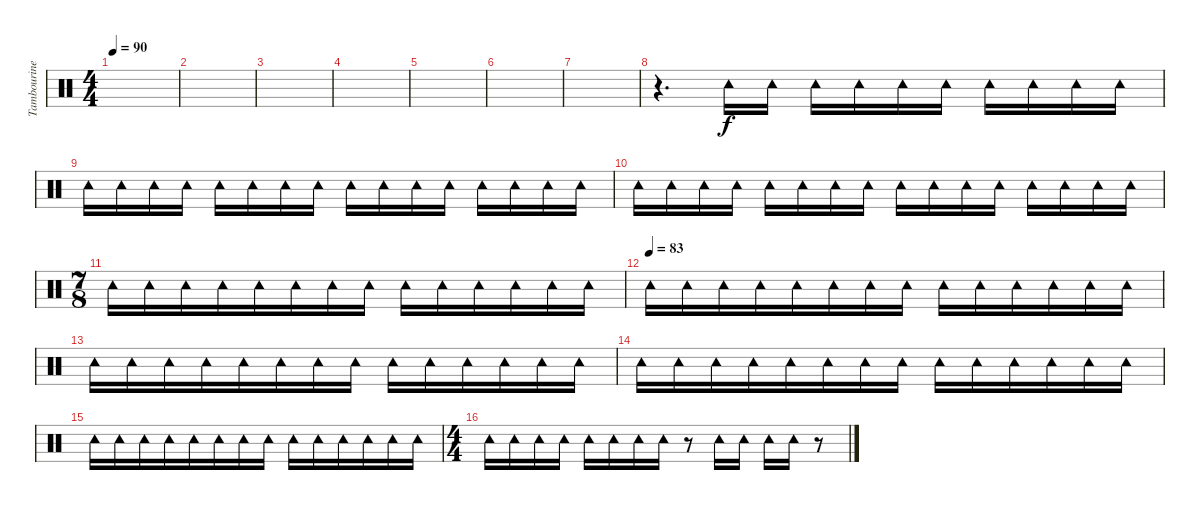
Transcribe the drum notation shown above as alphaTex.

\track ("Tambourine" "Tambourine") {instrument percussion}
\staff {score}
\articulation defaults
\ts (4 4)
\tempo 90
\clef neutral
\ks c
|
|
|
|
|
|
|
r.4{d} "Tambourine (hit)".16 "Tambourine (hit)".16 "Tambourine (hit)".16 "Tambourine (hit)".16 "Tambourine (hit)".16 "Tambourine (hit)".16 "Tambourine (hit)".16 "Tambourine (hit)".16 "Tambourine (hit)".16 "Tambourine (hit)".16 |
"Tambourine (hit)".16 "Tambourine (hit)".16 "Tambourine (hit)".16 "Tambourine (hit)".16 "Tambourine (hit)".16 "Tambourine (hit)".16 "Tambourine (hit)".16 "Tambourine (hit)".16 "Tambourine (hit)".16 "Tambourine (hit)".16 "Tambourine (hit)".16 "Tambourine (hit)".16 "Tambourine (hit)".16 "Tambourine (hit)".16 "Tambourine (hit)".16 "Tambourine (hit)".16 |
"Tambourine (hit)".16 "Tambourine (hit)".16 "Tambourine (hit)".16 "Tambourine (hit)".16 "Tambourine (hit)".16 "Tambourine (hit)".16 "Tambourine (hit)".16 "Tambourine (hit)".16 "Tambourine (hit)".16 "Tambourine (hit)".16 "Tambourine (hit)".16 "Tambourine (hit)".16 "Tambourine (hit)".16 "Tambourine (hit)".16 "Tambourine (hit)".16 "Tambourine (hit)".16 |
\ts (7 8)
"Tambourine (hit)".16 "Tambourine (hit)".16 "Tambourine (hit)".16 "Tambourine (hit)".16 "Tambourine (hit)".16 "Tambourine (hit)".16 "Tambourine (hit)".16 "Tambourine (hit)".16 "Tambourine (hit)".16 "Tambourine (hit)".16 "Tambourine (hit)".16 "Tambourine (hit)".16 "Tambourine (hit)".16 "Tambourine (hit)".16 |
\tempo (83)
"Tambourine (hit)".16 "Tambourine (hit)".16 "Tambourine (hit)".16 "Tambourine (hit)".16 "Tambourine (hit)".16 "Tambourine (hit)".16 "Tambourine (hit)".16 "Tambourine (hit)".16 "Tambourine (hit)".16 "Tambourine (hit)".16 "Tambourine (hit)".16 "Tambourine (hit)".16 "Tambourine (hit)".16 "Tambourine (hit)".16 |
"Tambourine (hit)".16 "Tambourine (hit)".16 "Tambourine (hit)".16 "Tambourine (hit)".16 "Tambourine (hit)".16 "Tambourine (hit)".16 "Tambourine (hit)".16 "Tambourine (hit)".16 "Tambourine (hit)".16 "Tambourine (hit)".16 "Tambourine (hit)".16 "Tambourine (hit)".16 "Tambourine (hit)".16 "Tambourine (hit)".16 |
"Tambourine (hit)".16 "Tambourine (hit)".16 "Tambourine (hit)".16 "Tambourine (hit)".16 "Tambourine (hit)".16 "Tambourine (hit)".16 "Tambourine (hit)".16 "Tambourine (hit)".16 "Tambourine (hit)".16 "Tambourine (hit)".16 "Tambourine (hit)".16 "Tambourine (hit)".16 "Tambourine (hit)".16 "Tambourine (hit)".16 |
"Tambourine (hit)".16 "Tambourine (hit)".16 "Tambourine (hit)".16 "Tambourine (hit)".16 "Tambourine (hit)".16 "Tambourine (hit)".16 "Tambourine (hit)".16 "Tambourine (hit)".16 "Tambourine (hit)".16 "Tambourine (hit)".16 "Tambourine (hit)".16 "Tambourine (hit)".16 "Tambourine (hit)".16 "Tambourine (hit)".16 |
\ts (4 4)
"Tambourine (hit)".16 "Tambourine (hit)".16 "Tambourine (hit)".16 "Tambourine (hit)".16 "Tambourine (hit)".16 "Tambourine (hit)".16 "Tambourine (hit)".16 "Tambourine (hit)".16 r.8 "Tambourine (hit)".16 "Tambourine (hit)".16 "Tambourine (hit)".16 "Tambourine (hit)".16 r.8
